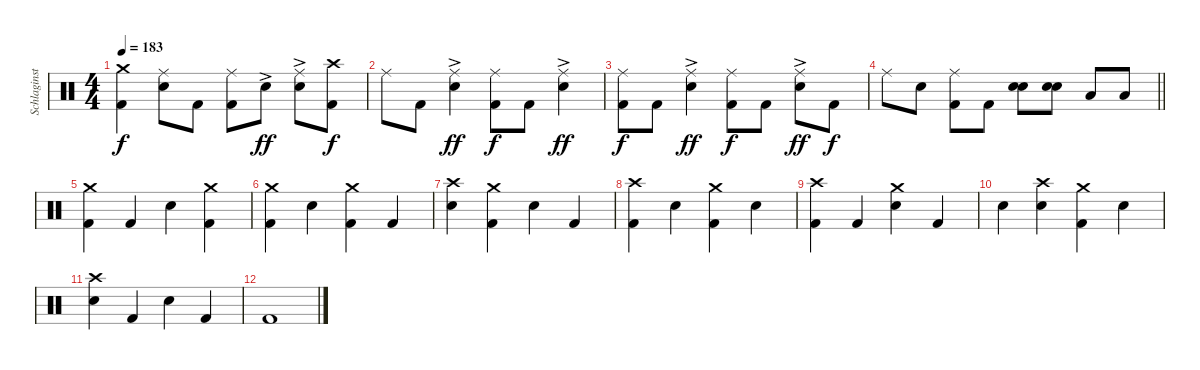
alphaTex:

\track ("Schlaginstrumente - Auswahl" "Schlaginst") {instrument percussion}
\staff {score}
\articulation defaults
\ts (4 4)
\tempo 183
\clef neutral
\ks c
("Crash medium (hit)" "Kick (hit) 2").4{dy f} ("Ride (middle)" "Snare (hit) 2").8 "Kick (hit) 2".8 ("Ride (middle)" "Kick (hit) 2").8 "Snare (hit) 2"{ac}.8{dy ff} ("Ride (middle)"{ac} "Snare (hit) 2"{ac}).8 ("Crash high (hit)" "Kick (hit) 2").8{dy f} |
"Ride (middle)".8 "Kick (hit) 2".8 ("Ride (middle)"{ac} "Snare (hit) 2").4{dy ff} ("Ride (middle)" "Kick (hit) 2").8{dy f} "Kick (hit) 2".8 ("Ride (middle)"{ac} "Snare (hit) 2").4{dy ff} |
("Ride (middle)" "Kick (hit) 2").8{dy f} "Kick (hit) 2".8 ("Ride (middle)"{ac} "Snare (hit) 2").4{dy ff} ("Ride (middle)" "Kick (hit) 2").8{dy f} "Kick (hit) 2".8 ("Ride (middle)"{ac} "Snare (hit) 2").8{dy ff} "Kick (hit) 2".8{dy f} |
\barLineRight lightlight "Ride (middle)".8 "Snare (hit) 2".8
("Ride (middle)" "Kick (hit) 2").8 "Kick (hit) 2".8 ("Snare (hit) 2" "Snare (hit) 2").8{bd 120} ("Snare (hit) 2" "Snare (hit) 2").8{bd 120} "Low Tom (hit)".8 "Low Tom (hit)".8 |
("Crash medium (hit)" "Kick (hit) 2").4 "Kick (hit) 2".4 "Snare (hit) 2".4 ("Crash medium (hit)" "Kick (hit) 2").4 |
("Crash medium (hit)" "Kick (hit) 2").4 "Snare (hit) 2".4 ("Crash medium (hit)" "Kick (hit) 2").4 "Kick (hit) 2".4 |
("Crash high (hit)" "Snare (hit) 2").4 ("Crash medium (hit)" "Kick (hit) 2").4 "Snare (hit) 2".4 "Kick (hit) 2".4 |
("Crash high (hit)" "Kick (hit) 2").4 "Snare (hit) 2".4 ("Crash medium (hit)" "Kick (hit) 2").4 "Snare (hit) 2".4 |
("Crash high (hit)" "Kick (hit) 2").4 "Kick (hit) 2".4 ("Crash medium (hit)" "Snare (hit) 2").4 "Kick (hit) 2".4 |
"Snare (hit) 2".4 ("Crash high (hit)" "Snare (hit) 2").4 ("Crash medium (hit)" "Kick (hit) 2").4 "Snare (hit) 2".4 |
("Crash high (hit)" "Snare (hit) 2").4 "Kick (hit) 2".4 "Snare (hit) 2".4 "Kick (hit) 2".4 |
"Kick (hit) 2".1
